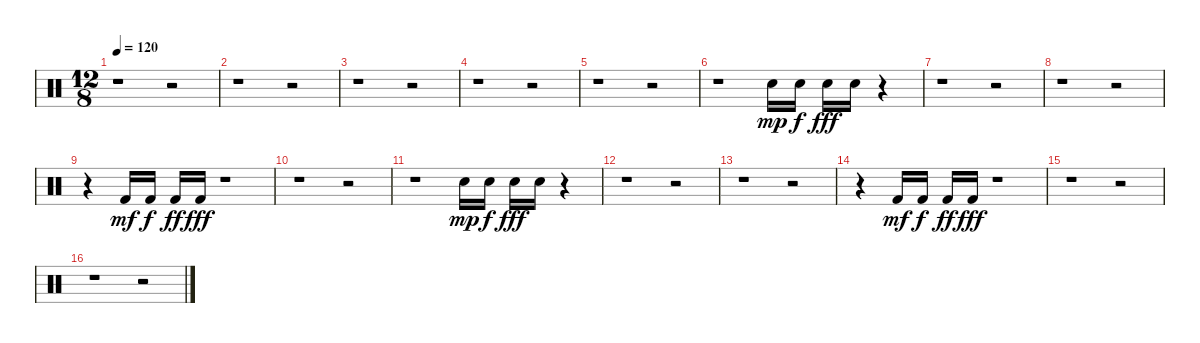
\track "" {instrument percussion}
\staff {score}
\articulation defaults
\ts (12 8)
\tempo 120
\clef neutral
\ks c
r.1{dy mp} r.2 |
r.1 r.2 |
r.1 r.2 |
r.1 r.2 |
r.1 r.2 |
r.1 "Metronome (bell)".16 "Metronome (bell)".16{dy f} "Metronome (bell)".16{dy fff} "Metronome (bell)".16 r.4 |
r.1 r.2 |
r.1 r.2 |
r.4 "Kick (hit) 2".16{dy mf} "Kick (hit) 2".16{dy f} "Kick (hit) 2".16{dy ff} "Kick (hit) 2".16{dy fff} r.1 |
r.1 r.2 |
r.1 "Metronome (bell)".16{dy mp} "Metronome (bell)".16{dy f} "Metronome (bell)".16{dy fff} "Metronome (bell)".16 r.4 |
r.1 r.2 |
r.1 r.2 |
r.4 "Kick (hit) 2".16{dy mf} "Kick (hit) 2".16{dy f} "Kick (hit) 2".16{dy ff} "Kick (hit) 2".16{dy fff} r.1 |
r.1 r.2 |
r.1 r.2
